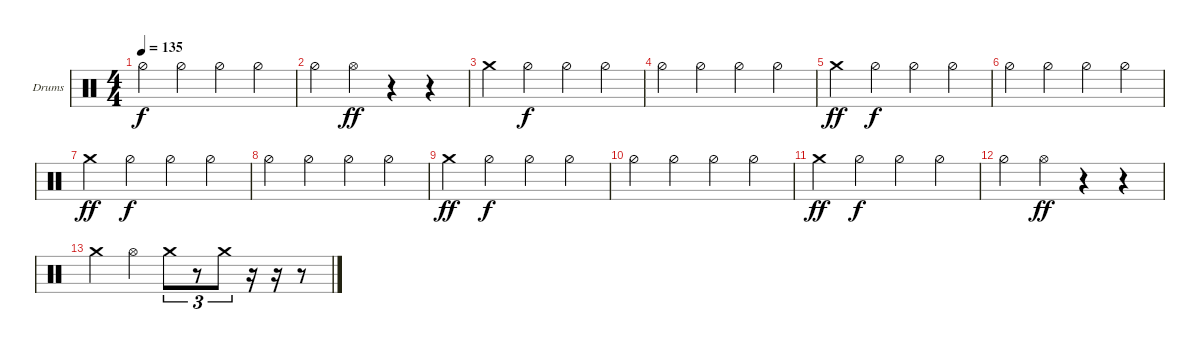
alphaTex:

\defaultSystemsLayout 4
\bracketExtendMode groupsimilarinstruments
\firstSystemTrackNameOrientation horizontal
\otherSystemsTrackNameOrientation horizontal
\track ("Drumkit" "Drums") {instrument percussion}
\staff {score}
\articulation defaults
\ts (4 4)
\tempo 135
\clef neutral
\scale
0.333333
\ks c "Hi-Hat (half)".4{dy f} "Hi-Hat (half)".4 "Hi-Hat (half)".4 "Hi-Hat (half)".4
|
\scale
0.333333 "Hi-Hat (half)".4 "Hi-Hat (open)".4{dy ff} r.4 r.4 |
\scale
0.333333 "Crash medium (hit)".4 "Hi-Hat (half)".4{dy f} "Hi-Hat (half)".4 "Hi-Hat (half)".4 |
\scale
0.333333 "Hi-Hat (half)".4 "Hi-Hat (half)".4 "Hi-Hat (half)".4 "Hi-Hat (half)".4 |
\scale
0.333333 "Crash medium (hit)".4{dy ff} "Hi-Hat (half)".4{dy f} "Hi-Hat (half)".4 "Hi-Hat (half)".4 |
\scale
0.333333 "Hi-Hat (half)".4 "Hi-Hat (half)".4 "Hi-Hat (half)".4 "Hi-Hat (half)".4 |
\scale
0.333333 "Crash medium (hit)".4{dy ff} "Hi-Hat (half)".4{dy f} "Hi-Hat (half)".4 "Hi-Hat (half)".4 |
\scale
0.333333 "Hi-Hat (half)".4 "Hi-Hat (half)".4 "Hi-Hat (half)".4 "Hi-Hat (half)".4 |
\scale
0.333333 "Crash medium (hit)".4{dy ff} "Hi-Hat (half)".4{dy f} "Hi-Hat (half)".4 "Hi-Hat (half)".4 |
\scale
0.333333 "Hi-Hat (half)".4 "Hi-Hat (half)".4 "Hi-Hat (half)".4 "Hi-Hat (half)".4 |
\scale
0.333333 "Crash medium (hit)".4{dy ff} "Hi-Hat (half)".4{dy f} "Hi-Hat (half)".4 "Hi-Hat (half)".4 |
"Hi-Hat (half)".4 "Hi-Hat (open)".4{dy ff} r.4 r.4 |
"Crash medium (hit)".4 "Hi-Hat (open)".4 "Crash medium (hit)".8{tu (3 2)} r.8{tu (3 2)} "Crash medium (hit)".8{tu (3 2)} r.16 r.16 r.8
